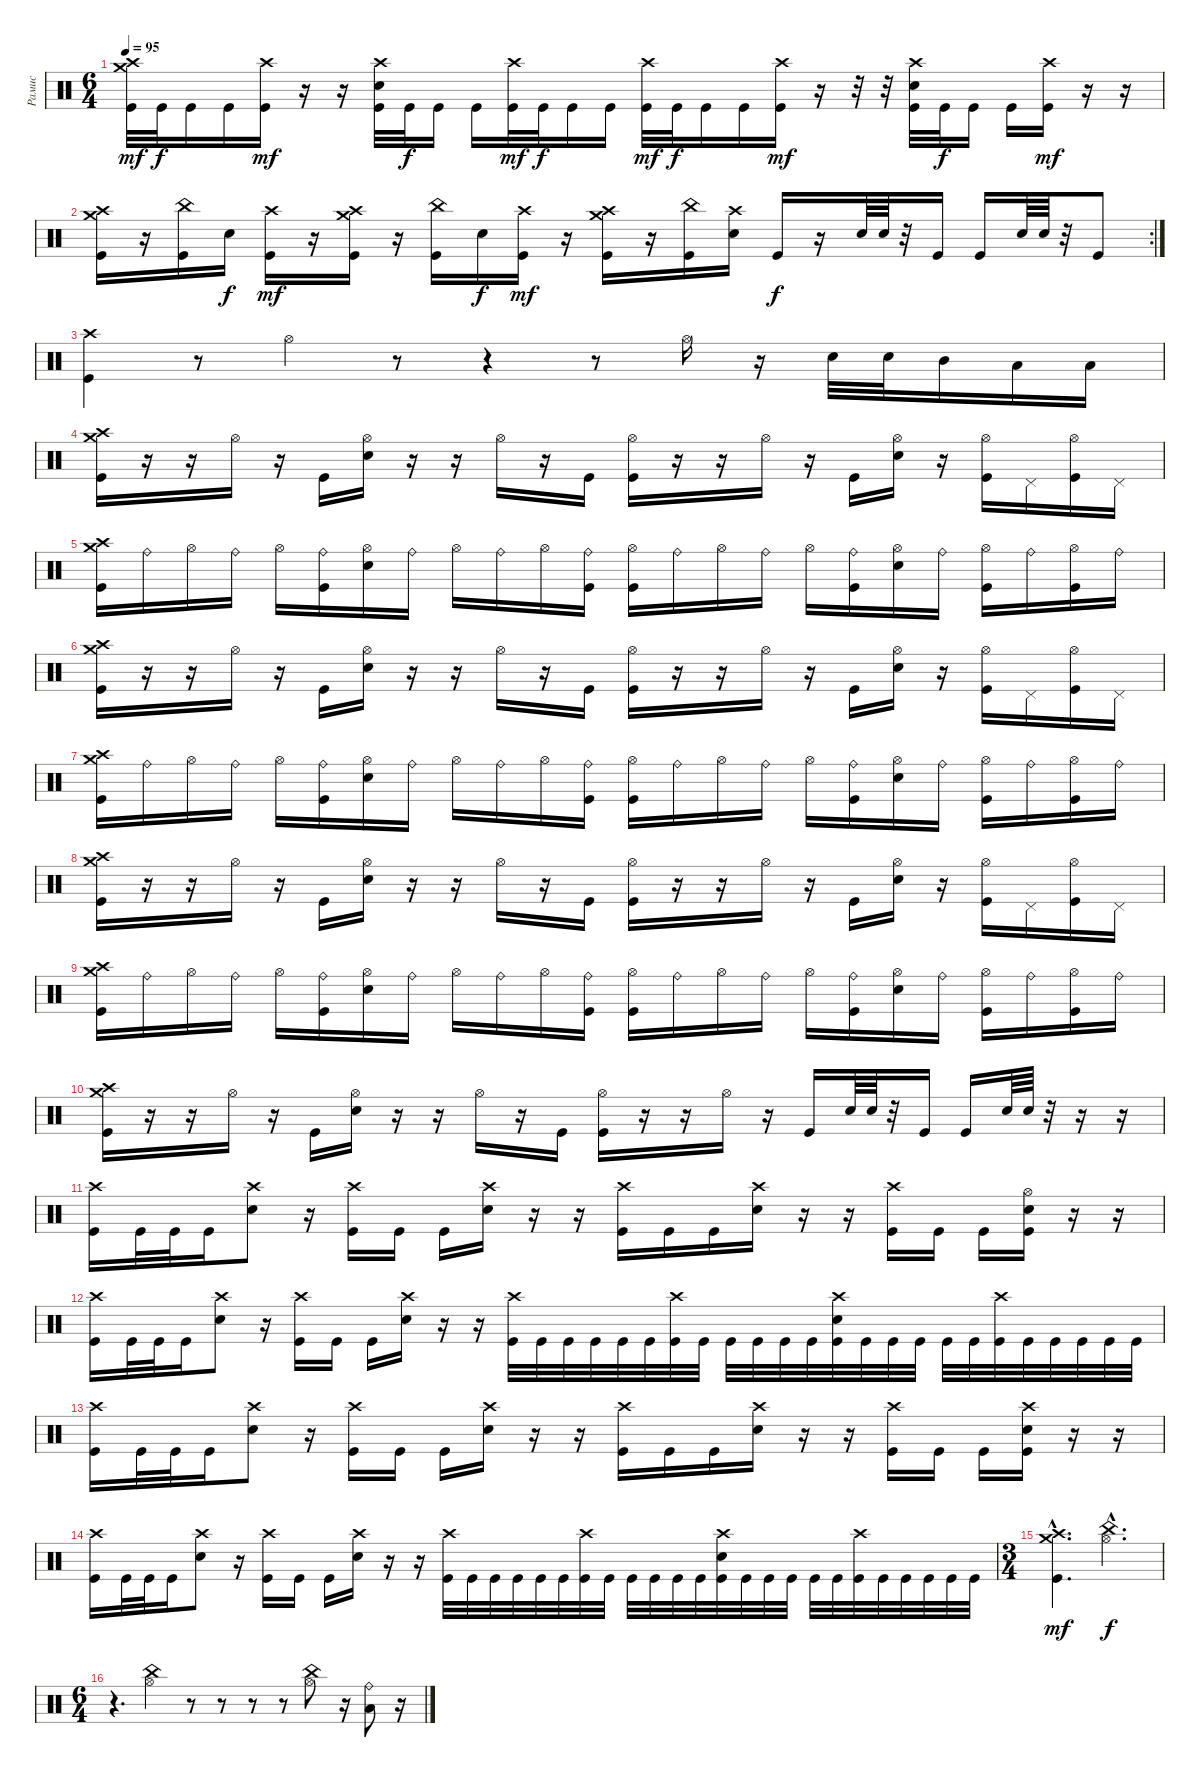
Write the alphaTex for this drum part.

\track ("Рамис" "Рамис") {instrument percussion}
\staff {score}
\articulation defaults
\ts (6 4)
\tempo 95
\clef neutral
\ks c
("Crash medium (hit)" "Crash high (hit)" "Kick (hit)").32{dy mf} "Kick (hit)".32{dy f} "Kick (hit)".16 "Kick (hit)".16 ("Crash high (hit)" "Kick (hit)").16{dy mf} r.16 r.16 ("Crash high (hit)" "Electric Snare (hit)" "Kick (hit)").32 "Kick (hit)".32{dy f} "Kick (hit)".16 "Kick (hit)".16 ("Crash high (hit)" "Kick (hit)").32{dy mf} "Kick (hit)".32{dy f} "Kick (hit)".16 "Kick (hit)".16 ("Crash high (hit)" "Kick (hit)").32{dy mf} "Kick (hit)".32{dy f} "Kick (hit)".16 "Kick (hit)".16 ("Crash high (hit)" "Kick (hit)").16{dy mf} r.16 r.32 r.32 ("Crash high (hit)" "Electric Snare (hit)" "Kick (hit)").32 "Kick (hit)".32{dy f} "Kick (hit)".16 "Kick (hit)".16 ("Crash high (hit)" "Kick (hit)").16{dy mf} r.16 r.16 |
\rc 2
("Crash high (hit)" "Crash medium (hit)" "Kick (hit)").16 r.16 ("China (hit)" "Kick (hit)").16 "Electric Snare (hit)".16{dy f} ("Crash high (hit)" "Kick (hit)").16{dy mf} r.16 ("Crash high (hit)" "Crash medium (hit)" "Kick (hit)").16 r.16 ("China (hit)" "Kick (hit)").16 "Electric Snare (hit)".16{dy f} ("Crash high (hit)" "Kick (hit)").16{dy mf} r.16 ("Crash high (hit)" "Crash medium (hit)" "Kick (hit)").16 r.16 ("China (hit)" "Kick (hit)").16 ("Crash high (hit)" "Electric Snare (hit)").16 "Kick (hit)".16{dy f} r.16 "Electric Snare (hit)".64 "Electric Snare (hit)".64 r.32 "Kick (hit)".16 "Kick (hit)".16 "Electric Snare (hit)".64 "Electric Snare (hit)".64 r.32 "Kick (hit)".8 |
("Crash high (hit)" "Kick (hit)").4 r.8 "Hi-Hat (open)".4 r.8 r.4 r.8 "Hi-Hat (open)".16 r.16 "Electric Snare (hit)".32 "Electric Snare (hit)".32 "Mid Tom (hit)".16 "Low Tom (hit)".16 "Low Tom (hit)".16 |
("Crash medium (hit)" "Crash high (hit)" "Kick (hit)").16 r.16 r.16 "Hi-Hat (open)".16 r.16 "Kick (hit)".16 ("Hi-Hat (open)" "Electric Snare (hit)").16 r.16 r.16 "Hi-Hat (open)".16 r.16 "Kick (hit)".16 ("Hi-Hat (open)" "Kick (hit)").16 r.16 r.16 "Hi-Hat (open)".16 r.16 "Kick (hit)".16 ("Hi-Hat (open)" "Electric Snare (hit)").16 r.16 ("Hi-Hat (open)" "Kick (hit)").16 "Pedal Hi-Hat (hit)".16 ("Hi-Hat (open)" "Kick (hit)").16 "Pedal Hi-Hat (hit)".16 |
("Crash medium (hit)" "Crash high (hit)" "Kick (hit)").16 "Ride (bell)".16 "Hi-Hat (open)".16 "Ride (bell)".16 "Hi-Hat (open)".16 ("Ride (bell)" "Kick (hit)").16 ("Hi-Hat (open)" "Electric Snare (hit)").16 "Ride (bell)".16 "Hi-Hat (open)".16 "Ride (bell)".16 "Hi-Hat (open)".16 ("Ride (bell)" "Kick (hit)").16 ("Hi-Hat (open)" "Kick (hit)").16 "Ride (bell)".16 "Hi-Hat (open)".16 "Ride (bell)".16 "Hi-Hat (open)".16 ("Ride (bell)" "Kick (hit)").16 ("Hi-Hat (open)" "Electric Snare (hit)").16 "Ride (bell)".16 ("Hi-Hat (open)" "Kick (hit)").16 "Ride (bell)".16 ("Hi-Hat (open)" "Kick (hit)").16 "Ride (bell)".16 |
("Crash medium (hit)" "Crash high (hit)" "Kick (hit)").16 r.16 r.16 "Hi-Hat (open)".16 r.16 "Kick (hit)".16 ("Hi-Hat (open)" "Electric Snare (hit)").16 r.16 r.16 "Hi-Hat (open)".16 r.16 "Kick (hit)".16 ("Hi-Hat (open)" "Kick (hit)").16 r.16 r.16 "Hi-Hat (open)".16 r.16 "Kick (hit)".16 ("Hi-Hat (open)" "Electric Snare (hit)").16 r.16 ("Hi-Hat (open)" "Kick (hit)").16 "Pedal Hi-Hat (hit)".16 ("Hi-Hat (open)" "Kick (hit)").16 "Pedal Hi-Hat (hit)".16 |
("Crash medium (hit)" "Crash high (hit)" "Kick (hit)").16 "Ride (bell)".16 "Hi-Hat (open)".16 "Ride (bell)".16 "Hi-Hat (open)".16 ("Ride (bell)" "Kick (hit)").16 ("Hi-Hat (open)" "Electric Snare (hit)").16 "Ride (bell)".16 "Hi-Hat (open)".16 "Ride (bell)".16 "Hi-Hat (open)".16 ("Ride (bell)" "Kick (hit)").16 ("Hi-Hat (open)" "Kick (hit)").16 "Ride (bell)".16 "Hi-Hat (open)".16 "Ride (bell)".16 "Hi-Hat (open)".16 ("Ride (bell)" "Kick (hit)").16 ("Hi-Hat (open)" "Electric Snare (hit)").16 "Ride (bell)".16 ("Hi-Hat (open)" "Kick (hit)").16 "Ride (bell)".16 ("Hi-Hat (open)" "Kick (hit)").16 "Ride (bell)".16 |
("Crash medium (hit)" "Crash high (hit)" "Kick (hit)").16 r.16 r.16 "Hi-Hat (open)".16 r.16 "Kick (hit)".16 ("Hi-Hat (open)" "Electric Snare (hit)").16 r.16 r.16 "Hi-Hat (open)".16 r.16 "Kick (hit)".16 ("Hi-Hat (open)" "Kick (hit)").16 r.16 r.16 "Hi-Hat (open)".16 r.16 "Kick (hit)".16 ("Hi-Hat (open)" "Electric Snare (hit)").16 r.16 ("Hi-Hat (open)" "Kick (hit)").16 "Pedal Hi-Hat (hit)".16 ("Hi-Hat (open)" "Kick (hit)").16 "Pedal Hi-Hat (hit)".16 |
("Crash medium (hit)" "Crash high (hit)" "Kick (hit)").16 "Ride (bell)".16 "Hi-Hat (open)".16 "Ride (bell)".16 "Hi-Hat (open)".16 ("Ride (bell)" "Kick (hit)").16 ("Hi-Hat (open)" "Electric Snare (hit)").16 "Ride (bell)".16 "Hi-Hat (open)".16 "Ride (bell)".16 "Hi-Hat (open)".16 ("Ride (bell)" "Kick (hit)").16 ("Hi-Hat (open)" "Kick (hit)").16 "Ride (bell)".16 "Hi-Hat (open)".16 "Ride (bell)".16 "Hi-Hat (open)".16 ("Ride (bell)" "Kick (hit)").16 ("Hi-Hat (open)" "Electric Snare (hit)").16 "Ride (bell)".16 ("Hi-Hat (open)" "Kick (hit)").16 "Ride (bell)".16 ("Hi-Hat (open)" "Kick (hit)").16 "Ride (bell)".16 |
("Crash medium (hit)" "Crash high (hit)" "Kick (hit)").16 r.16 r.16 "Hi-Hat (open)".16 r.16 "Kick (hit)".16 ("Hi-Hat (open)" "Electric Snare (hit)").16 r.16 r.16 "Hi-Hat (open)".16 r.16 "Kick (hit)".16 ("Hi-Hat (open)" "Kick (hit)").16 r.16 r.16 "Hi-Hat (open)".16 r.16 "Kick (hit)".16 "Electric Snare (hit)".64 "Electric Snare (hit)".64 r.32 "Kick (hit)".16 "Kick (hit)".16 "Electric Snare (hit)".64 "Electric Snare (hit)".64 r.32 r.16 r.16 |
("Crash high (hit)" "Kick (hit)").16 "Kick (hit)".32 "Kick (hit)".32 "Kick (hit)".16 ("Crash high (hit)" "Electric Snare (hit)").8 r.16 ("Crash high (hit)" "Kick (hit)").16 "Kick (hit)".16 "Kick (hit)".16 ("Crash high (hit)" "Electric Snare (hit)").16 r.16 r.16 ("Crash high (hit)" "Kick (hit)").16 "Kick (hit)".16 "Kick (hit)".16 ("Crash high (hit)" "Electric Snare (hit)").16 r.16 r.16 ("Crash high (hit)" "Kick (hit)").16 "Kick (hit)".16 "Kick (hit)".16 ("Hi-Hat (open)" "Electric Snare (hit)" "Kick (hit)").16 r.16 r.16 |
("Crash high (hit)" "Kick (hit)").16 "Kick (hit)".32 "Kick (hit)".32 "Kick (hit)".16 ("Crash high (hit)" "Electric Snare (hit)").8 r.16 ("Crash high (hit)" "Kick (hit)").16 "Kick (hit)".16 "Kick (hit)".16 ("Crash high (hit)" "Electric Snare (hit)").16 r.16 r.16 ("Crash high (hit)" "Kick (hit)").32 "Kick (hit)".32 "Kick (hit)".32 "Kick (hit)".32 "Kick (hit)".32 "Kick (hit)".32 ("Crash high (hit)" "Kick (hit)").32 "Kick (hit)".32 "Kick (hit)".32 "Kick (hit)".32 "Kick (hit)".32 "Kick (hit)".32 ("Crash high (hit)" "Electric Snare (hit)" "Kick (hit)").32 "Kick (hit)".32 "Kick (hit)".32 "Kick (hit)".32 "Kick (hit)".32 "Kick (hit)".32 ("Crash high (hit)" "Kick (hit)").32 "Kick (hit)".32 "Kick (hit)".32 "Kick (hit)".32 "Kick (hit)".32 "Kick (hit)".32 |
("Crash high (hit)" "Kick (hit)").16 "Kick (hit)".32 "Kick (hit)".32 "Kick (hit)".16 ("Crash high (hit)" "Electric Snare (hit)").8 r.16 ("Crash high (hit)" "Kick (hit)").16 "Kick (hit)".16 "Kick (hit)".16 ("Crash high (hit)" "Electric Snare (hit)").16 r.16 r.16 ("Crash high (hit)" "Kick (hit)").16 "Kick (hit)".16 "Kick (hit)".16 ("Crash high (hit)" "Electric Snare (hit)").16 r.16 r.16 ("Crash high (hit)" "Kick (hit)").16 "Kick (hit)".16 "Kick (hit)".16 ("Crash high (hit)" "Electric Snare (hit)" "Kick (hit)").16 r.16 r.16 |
("Crash high (hit)" "Kick (hit)").16 "Kick (hit)".32 "Kick (hit)".32 "Kick (hit)".16 ("Crash high (hit)" "Electric Snare (hit)").8 r.16 ("Crash high (hit)" "Kick (hit)").16 "Kick (hit)".16 "Kick (hit)".16 ("Crash high (hit)" "Electric Snare (hit)").16 r.16 r.16 ("Crash high (hit)" "Kick (hit)").32 "Kick (hit)".32 "Kick (hit)".32 "Kick (hit)".32 "Kick (hit)".32 "Kick (hit)".32 ("Crash high (hit)" "Kick (hit)").32 "Kick (hit)".32 "Kick (hit)".32 "Kick (hit)".32 "Kick (hit)".32 "Kick (hit)".32 ("Crash high (hit)" "Electric Snare (hit)" "Kick (hit)").32 "Kick (hit)".32 "Kick (hit)".32 "Kick (hit)".32 "Kick (hit)".32 "Kick (hit)".32 ("Crash high (hit)" "Kick (hit)").32 "Kick (hit)".32 "Kick (hit)".32 "Kick (hit)".32 "Kick (hit)".32 "Kick (hit)".32 |
\ts (3 4)
("Crash high (hit)"{hac} "Crash medium (hit)"{hac} "Kick (hit)"{hac}).4{d dy mf} ("China (hit)"{hac} "Hi-Hat (open)"{hac}).4{d dy f} |
\ts (6 4)
r.4{d} ("China (hit)" "Hi-Hat (open)").4 r.8 r.8 r.8 r.8 ("China (hit)" "Hi-Hat (open)").8 r.16 ("Ride (bell)" "Low Floor Tom (hit)").8 r.16
